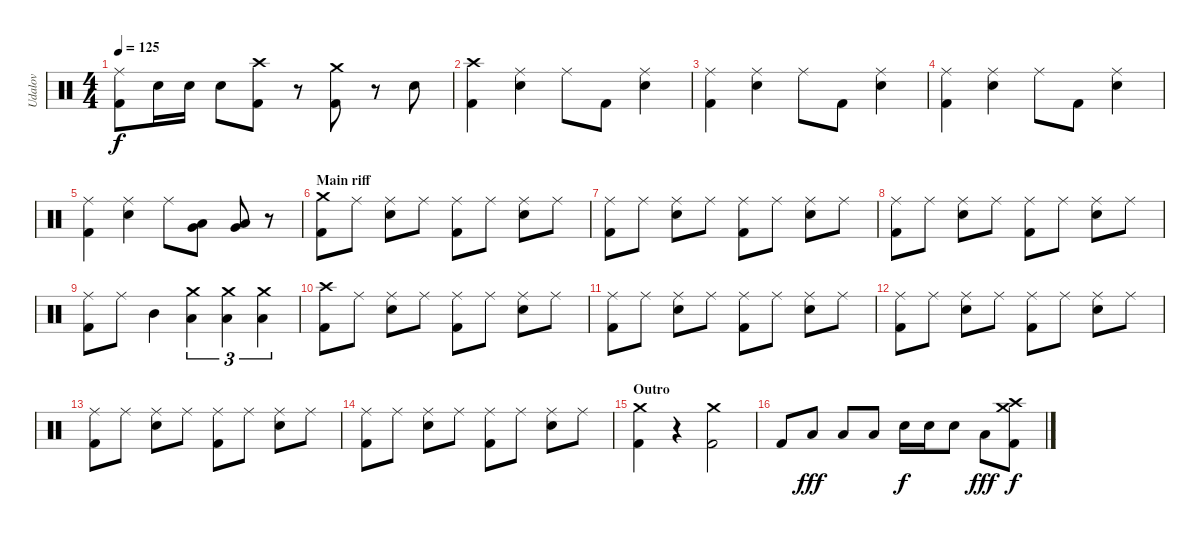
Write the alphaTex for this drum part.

\track ("Udalov" "Udalov") {instrument percussion}
\staff {score}
\articulation defaults
\ts (4 4)
\tempo 125
\clef neutral
\ks c
("Kick (hit) 2" "Ride (middle)").8{dy f} "Snare (hit) 2".16 "Snare (hit) 2".16 "Snare (hit) 2".8 ("Kick (hit) 2" "Crash high (hit)").8 r.8 ("Kick (hit) 2" "Crash medium (hit)").8 r.8 "Snare (hit) 2".8 |
("Kick (hit) 2" "Crash high (hit)").4 ("Snare (hit) 2" "Ride (middle)").4 "Ride (middle)".8 "Kick (hit) 2".8 ("Snare (hit) 2" "Ride (middle)").4 |
("Kick (hit) 2" "Ride (middle)").4 ("Snare (hit) 2" "Ride (middle)").4 "Ride (middle)".8 "Kick (hit) 2".8 ("Snare (hit) 2" "Ride (middle)").4 |
("Kick (hit) 2" "Ride (middle)").4 ("Snare (hit) 2" "Ride (middle)").4 "Ride (middle)".8 "Kick (hit) 2".8 ("Snare (hit) 2" "Ride (middle)").4 |
("Kick (hit) 2" "Ride (middle)").4 ("Snare (hit) 2" "Ride (middle)").4 "Ride (middle)".8 ("Low Tom (hit)" "Very Low Tom (hit)").8 ("Low Tom (hit)" "Very Low Tom (hit)").8 r.8 |
\section ("" "Main riff")
("Kick (hit) 2" "Crash medium (hit)").8 "Ride (middle)".8 ("Snare (hit) 2" "Ride (middle)").8 "Ride (middle)".8 ("Kick (hit) 2" "Ride (middle)").8 "Ride (middle)".8 ("Snare (hit) 2" "Ride (middle)").8 "Ride (middle)".8 |
("Kick (hit) 2" "Ride (middle)").8 "Ride (middle)".8 ("Snare (hit) 2" "Ride (middle)").8 "Ride (middle)".8 ("Kick (hit) 2" "Ride (middle)").8 "Ride (middle)".8 ("Snare (hit) 2" "Ride (middle)").8 "Ride (middle)".8 |
("Kick (hit) 2" "Ride (middle)").8 "Ride (middle)".8 ("Snare (hit) 2" "Ride (middle)").8 "Ride (middle)".8 ("Kick (hit) 2" "Ride (middle)").8 "Ride (middle)".8 ("Snare (hit) 2" "Ride (middle)").8 "Ride (middle)".8 |
("Kick (hit) 2" "Ride (middle)").8 "Ride (middle)".8 "Mid Tom (hit)".4 ("Crash medium (hit)" "Low Tom (hit)").4{tu (3 2)} ("Crash medium (hit)" "Low Tom (hit)").4{tu (3 2)} ("Crash medium (hit)" "Low Tom (hit)").4{tu (3 2)} |
("Kick (hit) 2" "Crash high (hit)").8 "Ride (middle)".8 ("Snare (hit) 2" "Ride (middle)").8 "Ride (middle)".8 ("Kick (hit) 2" "Ride (middle)").8 "Ride (middle)".8 ("Snare (hit) 2" "Ride (middle)").8 "Ride (middle)".8 |
("Kick (hit) 2" "Ride (middle)").8 "Ride (middle)".8 ("Snare (hit) 2" "Ride (middle)").8 "Ride (middle)".8 ("Kick (hit) 2" "Ride (middle)").8 "Ride (middle)".8 ("Snare (hit) 2" "Ride (middle)").8 "Ride (middle)".8 |
("Kick (hit) 2" "Ride (middle)").8 "Ride (middle)".8 ("Snare (hit) 2" "Ride (middle)").8 "Ride (middle)".8 ("Kick (hit) 2" "Ride (middle)").8 "Ride (middle)".8 ("Snare (hit) 2" "Ride (middle)").8 "Ride (middle)".8 |
("Kick (hit) 2" "Ride (middle)").8 "Ride (middle)".8 ("Snare (hit) 2" "Ride (middle)").8 "Ride (middle)".8 ("Kick (hit) 2" "Ride (middle)").8 "Ride (middle)".8 ("Snare (hit) 2" "Ride (middle)").8 "Ride (middle)".8 |
("Kick (hit) 2" "Ride (middle)").8 "Ride (middle)".8 ("Snare (hit) 2" "Ride (middle)").8 "Ride (middle)".8 ("Kick (hit) 2" "Ride (middle)").8 "Ride (middle)".8 ("Snare (hit) 2" "Ride (middle)").8 "Ride (middle)".8 |
\section ("" "Outro")
("Kick (hit) 2" "Crash medium (hit)").4 r.4 ("Kick (hit) 2" "Crash medium (hit)").2 |
"Kick (hit) 2".8 "Low Tom (hit)".8{dy fff} "Low Tom (hit)".8 "Low Tom (hit)".8 "Snare (hit) 2".16{dy f} "Snare (hit) 2".16 "Snare (hit) 2".8 "Low Tom (hit)".8{dy fff} ("Kick (hit) 2" "Crash high (hit)" "Crash medium (hit)").8{dy f}
